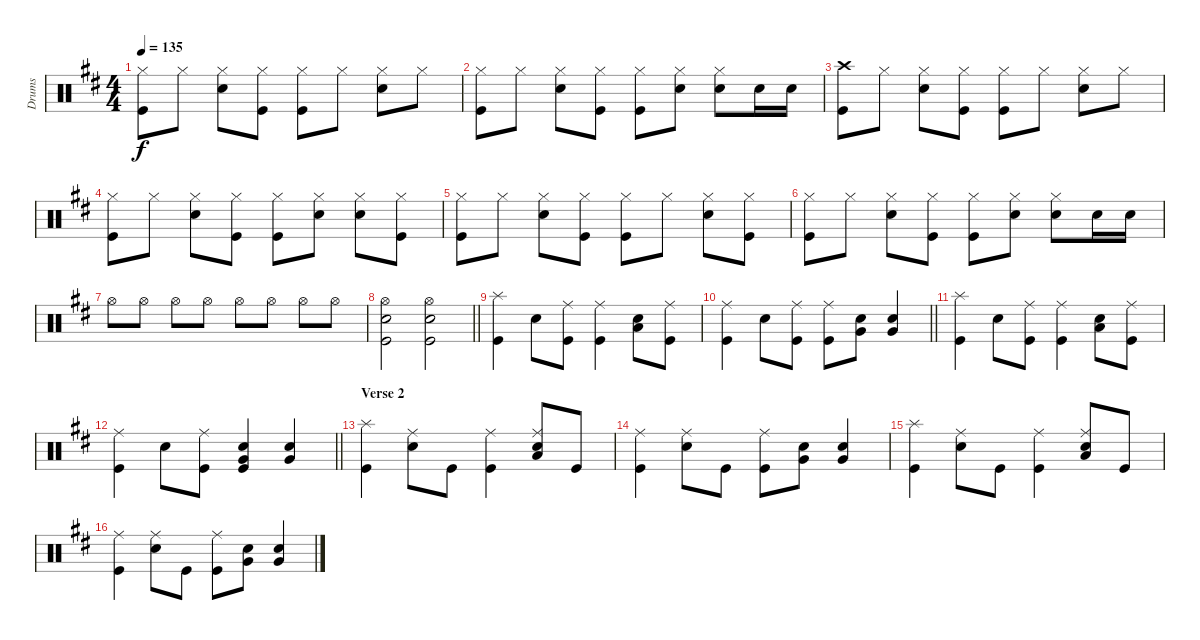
\track ("Drums" "Drums") {instrument percussion}
\staff {score}
\articulation defaults
\ts (4 4)
\tempo 135
\clef neutral
\ks d
("Hi-Hat (closed)" "Kick (hit)").8{dy f} "Hi-Hat (closed)".8 ("Hi-Hat (closed)" "Snare (hit) 2").8 ("Hi-Hat (closed)" "Kick (hit)").8 ("Hi-Hat (closed)" "Kick (hit)").8 "Hi-Hat (closed)".8 ("Hi-Hat (closed)" "Snare (hit) 2").8 "Hi-Hat (closed)".8 |
("Hi-Hat (closed)" "Kick (hit)").8 "Hi-Hat (closed)".8 ("Hi-Hat (closed)" "Snare (hit) 2").8 ("Hi-Hat (closed)" "Kick (hit)").8 ("Hi-Hat (closed)" "Kick (hit)").8 ("Hi-Hat (closed)" "Snare (hit) 2").8 ("Hi-Hat (closed)" "Snare (hit) 2").8 "Snare (hit) 2".16 "Snare (hit) 2".16 |
("Crash high (hit)" "Kick (hit)").8 "Hi-Hat (closed)".8 ("Hi-Hat (closed)" "Snare (hit) 2").8 ("Hi-Hat (closed)" "Kick (hit)").8 ("Hi-Hat (closed)" "Kick (hit)").8 "Hi-Hat (closed)".8 ("Hi-Hat (closed)" "Snare (hit) 2").8 "Hi-Hat (closed)".8 |
("Hi-Hat (closed)" "Kick (hit)").8 "Hi-Hat (closed)".8 ("Hi-Hat (closed)" "Snare (hit) 2").8 ("Hi-Hat (closed)" "Kick (hit)").8 ("Hi-Hat (closed)" "Kick (hit)").8 ("Hi-Hat (closed)" "Snare (hit) 2").8 ("Hi-Hat (closed)" "Snare (hit) 2").8 ("Hi-Hat (closed)" "Kick (hit)").8 |
("Hi-Hat (closed)" "Kick (hit)").8 "Hi-Hat (closed)".8 ("Hi-Hat (closed)" "Snare (hit) 2").8 ("Hi-Hat (closed)" "Kick (hit)").8 ("Hi-Hat (closed)" "Kick (hit)").8 "Hi-Hat (closed)".8 ("Hi-Hat (closed)" "Snare (hit) 2").8 ("Hi-Hat (closed)" "Kick (hit)").8 |
("Hi-Hat (closed)" "Kick (hit)").8 "Hi-Hat (closed)".8 ("Hi-Hat (closed)" "Snare (hit) 2").8 ("Hi-Hat (closed)" "Kick (hit)").8 ("Hi-Hat (closed)" "Kick (hit)").8 ("Hi-Hat (closed)" "Snare (hit) 2").8 ("Hi-Hat (closed)" "Snare (hit) 2").8 "Snare (hit) 2".16 "Snare (hit) 2".16 |
"Hi-Hat (open)".8 "Hi-Hat (open)".8 "Hi-Hat (open)".8 "Hi-Hat (open)".8 "Hi-Hat (open)".8 "Hi-Hat (open)".8 "Hi-Hat (open)".8 "Hi-Hat (open)".8 |
\barLineRight lightlight
("Hi-Hat (open)" "Snare (hit) 2" "Kick (hit)").2 ("Hi-Hat (open)" "Snare (hit) 2" "Kick (hit)").2 |
\section ("" "")
("Splash (hit)" "Kick (hit)").4 "Snare (hit) 2".8 ("Ride (middle)" "Kick (hit)").8 ("Ride (middle)" "Kick (hit)").4 ("Low Tom (hit)" "Snare (hit) 2").8 ("Ride (middle)" "Kick (hit)").8 |
\barLineRight lightlight
("Ride (middle)" "Kick (hit)").4 "Snare (hit) 2".8 ("Ride (middle)" "Kick (hit)").8 ("Ride (middle)" "Kick (hit)").8 ("Very Low Tom (hit)" "Snare (hit) 2").8 ("Very Low Tom (hit)" "Snare (hit) 2").4 |
("Splash (hit)" "Kick (hit)").4 "Snare (hit) 2".8 ("Ride (middle)" "Kick (hit)").8 ("Ride (middle)" "Kick (hit)").4 ("Low Tom (hit)" "Snare (hit) 2").8 ("Ride (middle)" "Kick (hit)").8 |
\barLineRight lightlight
("Ride (middle)" "Kick (hit)").4 "Snare (hit) 2".8 ("Ride (middle)" "Kick (hit)").8 ("Very Low Tom (hit)" "Snare (hit) 2" "Kick (hit)").4 ("Very Low Tom (hit)" "Snare (hit) 2").4 |
\section ("" "Verse 2")
("Splash (hit)" "Kick (hit)").4 ("Ride (middle)" "Snare (hit) 2").8 "Kick (hit)".8 ("Ride (middle)" "Kick (hit)").4 ("Ride (middle)" "Low Tom (hit)" "Snare (hit) 2").8 "Kick (hit)".8 |
("Ride (middle)" "Kick (hit)").4 ("Ride (middle)" "Snare (hit) 2").8 "Kick (hit)".8 ("Ride (middle)" "Kick (hit)").8 ("Very Low Tom (hit)" "Snare (hit) 2").8 ("Very Low Tom (hit)" "Snare (hit) 2").4 |
("Splash (hit)" "Kick (hit)").4 ("Ride (middle)" "Snare (hit) 2").8 "Kick (hit)".8 ("Ride (middle)" "Kick (hit)").4 ("Ride (middle)" "Low Tom (hit)" "Snare (hit) 2").8 "Kick (hit)".8 |
("Ride (middle)" "Kick (hit)").4 ("Ride (middle)" "Snare (hit) 2").8 "Kick (hit)".8 ("Ride (middle)" "Kick (hit)").8 ("Very Low Tom (hit)" "Snare (hit) 2").8 ("Very Low Tom (hit)" "Snare (hit) 2").4
